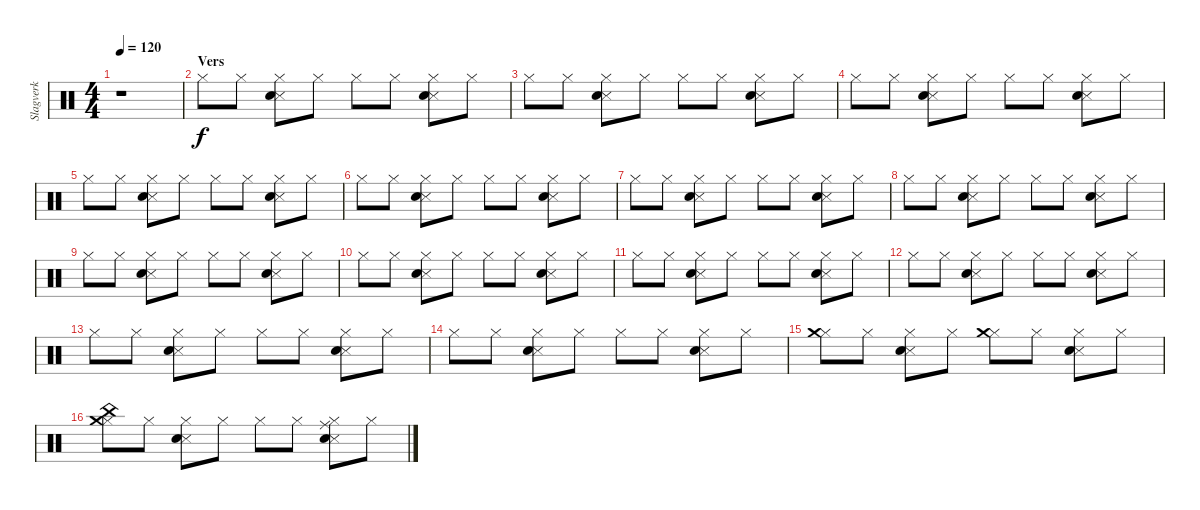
\track ("Slagverk" "Slagverk") {instrument percussion}
\staff {score}
\articulation defaults
\ts (4 4)
\tempo 120
\clef neutral
\ks c
r.1{dy f} |
\section ("" "Vers")
"Hi-Hat (closed)".8 "Hi-Hat (closed)".8 ("Hi-Hat (closed)" "Snare (side stick) 3" "Snare (hit) 2").8 "Hi-Hat (closed)".8 "Hi-Hat (closed)".8 "Hi-Hat (closed)".8 ("Hi-Hat (closed)" "Snare (side stick) 3" "Snare (hit) 2").8 "Hi-Hat (closed)".8 |
"Hi-Hat (closed)".8 "Hi-Hat (closed)".8 ("Hi-Hat (closed)" "Snare (side stick) 3" "Snare (hit) 2").8 "Hi-Hat (closed)".8 "Hi-Hat (closed)".8 "Hi-Hat (closed)".8 ("Hi-Hat (closed)" "Snare (side stick) 3" "Snare (hit) 2").8 "Hi-Hat (closed)".8 |
"Hi-Hat (closed)".8 "Hi-Hat (closed)".8 ("Hi-Hat (closed)" "Snare (side stick) 3" "Snare (hit) 2").8 "Hi-Hat (closed)".8 "Hi-Hat (closed)".8 "Hi-Hat (closed)".8 ("Hi-Hat (closed)" "Snare (side stick) 3" "Snare (hit) 2").8 "Hi-Hat (closed)".8 |
"Hi-Hat (closed)".8 "Hi-Hat (closed)".8 ("Hi-Hat (closed)" "Snare (side stick) 3" "Snare (hit) 2").8 "Hi-Hat (closed)".8 "Hi-Hat (closed)".8 "Hi-Hat (closed)".8 ("Hi-Hat (closed)" "Snare (side stick) 3" "Snare (hit) 2").8 "Hi-Hat (closed)".8 |
"Hi-Hat (closed)".8 "Hi-Hat (closed)".8 ("Hi-Hat (closed)" "Snare (side stick) 3" "Snare (hit) 2").8 "Hi-Hat (closed)".8 "Hi-Hat (closed)".8 "Hi-Hat (closed)".8 ("Hi-Hat (closed)" "Snare (side stick) 3" "Snare (hit) 2").8 "Hi-Hat (closed)".8 |
"Hi-Hat (closed)".8 "Hi-Hat (closed)".8 ("Hi-Hat (closed)" "Snare (side stick) 3" "Snare (hit) 2").8 "Hi-Hat (closed)".8 "Hi-Hat (closed)".8 "Hi-Hat (closed)".8 ("Hi-Hat (closed)" "Snare (side stick) 3" "Snare (hit) 2").8 "Hi-Hat (closed)".8 |
"Hi-Hat (closed)".8 "Hi-Hat (closed)".8 ("Hi-Hat (closed)" "Snare (side stick) 3" "Snare (hit) 2").8 "Hi-Hat (closed)".8 "Hi-Hat (closed)".8 "Hi-Hat (closed)".8 ("Hi-Hat (closed)" "Snare (side stick) 3" "Snare (hit) 2").8 "Hi-Hat (closed)".8 |
"Hi-Hat (closed)".8 "Hi-Hat (closed)".8 ("Hi-Hat (closed)" "Snare (side stick) 3" "Snare (hit) 2").8 "Hi-Hat (closed)".8 "Hi-Hat (closed)".8 "Hi-Hat (closed)".8 ("Hi-Hat (closed)" "Snare (side stick) 3" "Snare (hit) 2").8 "Hi-Hat (closed)".8 |
"Hi-Hat (closed)".8 "Hi-Hat (closed)".8 ("Hi-Hat (closed)" "Snare (side stick) 3" "Snare (hit) 2").8 "Hi-Hat (closed)".8 "Hi-Hat (closed)".8 "Hi-Hat (closed)".8 ("Hi-Hat (closed)" "Snare (side stick) 3" "Snare (hit) 2").8 "Hi-Hat (closed)".8 |
"Hi-Hat (closed)".8 "Hi-Hat (closed)".8 ("Hi-Hat (closed)" "Snare (side stick) 3" "Snare (hit) 2").8 "Hi-Hat (closed)".8 "Hi-Hat (closed)".8 "Hi-Hat (closed)".8 ("Hi-Hat (closed)" "Snare (side stick) 3" "Snare (hit) 2").8 "Hi-Hat (closed)".8 |
"Hi-Hat (closed)".8 "Hi-Hat (closed)".8 ("Hi-Hat (closed)" "Snare (side stick) 3" "Snare (hit) 2").8 "Hi-Hat (closed)".8 "Hi-Hat (closed)".8 "Hi-Hat (closed)".8 ("Hi-Hat (closed)" "Snare (side stick) 3" "Snare (hit) 2").8 "Hi-Hat (closed)".8 |
"Hi-Hat (closed)".8 "Hi-Hat (closed)".8 ("Hi-Hat (closed)" "Snare (side stick) 3" "Snare (hit) 2").8 "Hi-Hat (closed)".8 "Hi-Hat (closed)".8 "Hi-Hat (closed)".8 ("Hi-Hat (closed)" "Snare (side stick) 3" "Snare (hit) 2").8 "Hi-Hat (closed)".8 |
"Hi-Hat (closed)".8 "Hi-Hat (closed)".8 ("Hi-Hat (closed)" "Snare (side stick) 3" "Snare (hit) 2").8 "Hi-Hat (closed)".8 "Hi-Hat (closed)".8 "Hi-Hat (closed)".8 ("Hi-Hat (closed)" "Snare (side stick) 3" "Snare (hit) 2").8 "Hi-Hat (closed)".8 |
("Hi-Hat (closed)" "Crash medium (hit)").8 "Hi-Hat (closed)".8 ("Hi-Hat (closed)" "Snare (side stick) 3" "Snare (hit) 2").8 "Hi-Hat (closed)".8 ("Hi-Hat (closed)" "Crash medium (hit)").8 "Hi-Hat (closed)".8 ("Hi-Hat (closed)" "Snare (side stick) 3" "Snare (hit) 2").8 "Hi-Hat (closed)".8 |
("Hi-Hat (closed)" "Crash medium (hit)" "China (hit)").8 "Hi-Hat (closed)".8 ("Hi-Hat (closed)" "Snare (side stick) 3" "Snare (hit) 2").8 "Hi-Hat (closed)".8 "Hi-Hat (closed)".8 "Hi-Hat (closed)".8 ("Hi-Hat (closed)" "Snare (side stick) 3" "Snare (hit) 2" "Ride (middle)").8 "Hi-Hat (closed)".8
